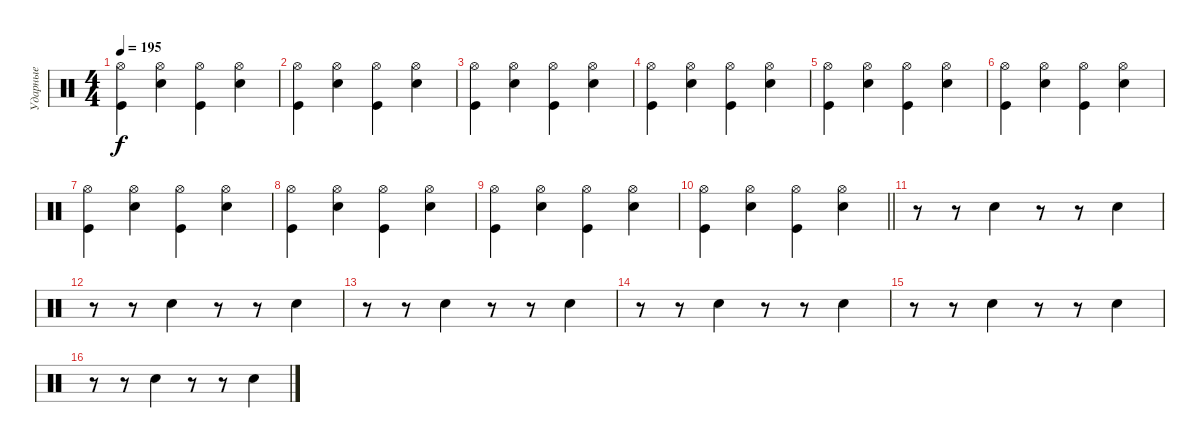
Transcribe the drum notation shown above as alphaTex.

\track ("Ударные" "Ударные") {instrument percussion}
\staff {score}
\articulation defaults
\ts (4 4)
\tempo 195
\clef neutral
\ks c
("Hi-Hat (open)" "Kick (hit)").4{dy f} ("Hi-Hat (open)" "Electric Snare (hit)").4 ("Hi-Hat (open)" "Kick (hit)").4 ("Hi-Hat (open)" "Electric Snare (hit)").4 |
("Hi-Hat (open)" "Kick (hit)").4 ("Hi-Hat (open)" "Electric Snare (hit)").4 ("Hi-Hat (open)" "Kick (hit)").4 ("Hi-Hat (open)" "Electric Snare (hit)").4 |
("Hi-Hat (open)" "Kick (hit)").4 ("Hi-Hat (open)" "Electric Snare (hit)").4 ("Hi-Hat (open)" "Kick (hit)").4 ("Hi-Hat (open)" "Electric Snare (hit)").4 |
("Hi-Hat (open)" "Kick (hit)").4 ("Hi-Hat (open)" "Electric Snare (hit)").4 ("Hi-Hat (open)" "Kick (hit)").4 ("Hi-Hat (open)" "Electric Snare (hit)").4 |
("Hi-Hat (open)" "Kick (hit)").4 ("Hi-Hat (open)" "Electric Snare (hit)").4 ("Hi-Hat (open)" "Kick (hit)").4 ("Hi-Hat (open)" "Electric Snare (hit)").4 |
("Hi-Hat (open)" "Kick (hit)").4 ("Hi-Hat (open)" "Electric Snare (hit)").4 ("Hi-Hat (open)" "Kick (hit)").4 ("Hi-Hat (open)" "Electric Snare (hit)").4 |
("Hi-Hat (open)" "Kick (hit)").4 ("Hi-Hat (open)" "Electric Snare (hit)").4 ("Hi-Hat (open)" "Kick (hit)").4 ("Hi-Hat (open)" "Electric Snare (hit)").4 |
("Hi-Hat (open)" "Kick (hit)").4 ("Hi-Hat (open)" "Electric Snare (hit)").4 ("Hi-Hat (open)" "Kick (hit)").4 ("Hi-Hat (open)" "Electric Snare (hit)").4 |
("Hi-Hat (open)" "Kick (hit)").4 ("Hi-Hat (open)" "Electric Snare (hit)").4 ("Hi-Hat (open)" "Kick (hit)").4 ("Hi-Hat (open)" "Electric Snare (hit)").4 |
\barLineRight lightlight
("Hi-Hat (open)" "Kick (hit)").4 ("Hi-Hat (open)" "Electric Snare (hit)").4 ("Hi-Hat (open)" "Kick (hit)").4 ("Hi-Hat (open)" "Electric Snare (hit)").4 |
\section ("" "")
r.8 r.8 "Electric Snare (hit)".4 r.8 r.8 "Electric Snare (hit)".4 |
r.8 r.8 "Electric Snare (hit)".4 r.8 r.8 "Electric Snare (hit)".4 |
r.8 r.8 "Electric Snare (hit)".4 r.8 r.8 "Electric Snare (hit)".4 |
r.8 r.8 "Electric Snare (hit)".4 r.8 r.8 "Electric Snare (hit)".4 |
r.8 r.8 "Electric Snare (hit)".4 r.8 r.8 "Electric Snare (hit)".4 |
r.8 r.8 "Electric Snare (hit)".4 r.8 r.8 "Electric Snare (hit)".4
